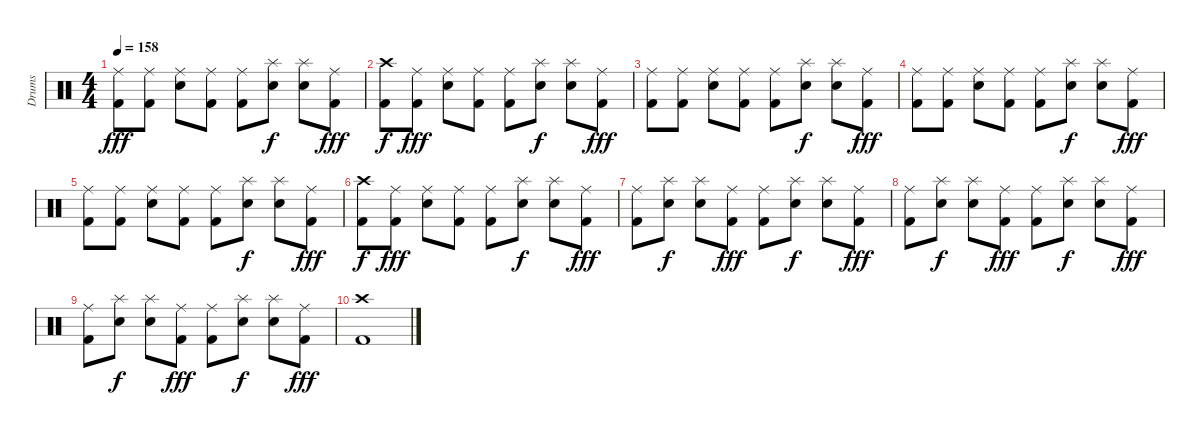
\track ("Drums" "Drums") {instrument percussion}
\staff {score}
\articulation defaults
\ts (4 4)
\tempo 158
\clef neutral
\ks c
("Ride (middle)" "Kick (hit) 2").8{dy fff} ("Ride (middle)" "Kick (hit) 2").8 ("Ride (middle)" "Electric Snare (hit)").8 ("Ride (middle)" "Kick (hit) 2").8 ("Ride (middle)" "Kick (hit) 2").8 ("Splash (hit)" "Electric Snare (hit)").8{dy f} ("Splash (hit)" "Electric Snare (hit)").8 ("Ride (middle)" "Kick (hit) 2").8{dy fff} |
("Crash high (hit)" "Kick (hit) 2").8{dy f} ("Ride (middle)" "Kick (hit) 2").8{dy fff} ("Ride (middle)" "Electric Snare (hit)").8 ("Ride (middle)" "Kick (hit) 2").8 ("Ride (middle)" "Kick (hit) 2").8 ("Splash (hit)" "Electric Snare (hit)").8{dy f} ("Splash (hit)" "Electric Snare (hit)").8 ("Ride (middle)" "Kick (hit) 2").8{dy fff} |
("Ride (middle)" "Kick (hit) 2").8 ("Ride (middle)" "Kick (hit) 2").8 ("Ride (middle)" "Electric Snare (hit)").8 ("Ride (middle)" "Kick (hit) 2").8 ("Ride (middle)" "Kick (hit) 2").8 ("Splash (hit)" "Electric Snare (hit)").8{dy f} ("Splash (hit)" "Electric Snare (hit)").8 ("Ride (middle)" "Kick (hit) 2").8{dy fff} |
("Ride (middle)" "Kick (hit) 2").8 ("Ride (middle)" "Kick (hit) 2").8 ("Ride (middle)" "Electric Snare (hit)").8 ("Ride (middle)" "Kick (hit) 2").8 ("Ride (middle)" "Kick (hit) 2").8 ("Splash (hit)" "Electric Snare (hit)").8{dy f} ("Splash (hit)" "Electric Snare (hit)").8 ("Ride (middle)" "Kick (hit) 2").8{dy fff} |
("Ride (middle)" "Kick (hit) 2").8 ("Ride (middle)" "Kick (hit) 2").8 ("Ride (middle)" "Electric Snare (hit)").8 ("Ride (middle)" "Kick (hit) 2").8 ("Ride (middle)" "Kick (hit) 2").8 ("Splash (hit)" "Electric Snare (hit)").8{dy f} ("Splash (hit)" "Electric Snare (hit)").8 ("Ride (middle)" "Kick (hit) 2").8{dy fff} |
("Crash high (hit)" "Kick (hit) 2").8{dy f} ("Ride (middle)" "Kick (hit) 2").8{dy fff} ("Ride (middle)" "Electric Snare (hit)").8 ("Ride (middle)" "Kick (hit) 2").8 ("Ride (middle)" "Kick (hit) 2").8 ("Splash (hit)" "Electric Snare (hit)").8{dy f} ("Splash (hit)" "Electric Snare (hit)").8 ("Ride (middle)" "Kick (hit) 2").8{dy fff} |
("Ride (middle)" "Kick (hit) 2").8 ("Splash (hit)" "Electric Snare (hit)").8{dy f} ("Splash (hit)" "Electric Snare (hit)").8 ("Ride (middle)" "Kick (hit) 2").8{dy fff} ("Ride (middle)" "Kick (hit) 2").8 ("Splash (hit)" "Electric Snare (hit)").8{dy f} ("Splash (hit)" "Electric Snare (hit)").8 ("Ride (middle)" "Kick (hit) 2").8{dy fff} |
("Ride (middle)" "Kick (hit) 2").8 ("Splash (hit)" "Electric Snare (hit)").8{dy f} ("Splash (hit)" "Electric Snare (hit)").8 ("Ride (middle)" "Kick (hit) 2").8{dy fff} ("Ride (middle)" "Kick (hit) 2").8 ("Splash (hit)" "Electric Snare (hit)").8{dy f} ("Splash (hit)" "Electric Snare (hit)").8 ("Ride (middle)" "Kick (hit) 2").8{dy fff} |
("Ride (middle)" "Kick (hit) 2").8 ("Splash (hit)" "Electric Snare (hit)").8{dy f} ("Splash (hit)" "Electric Snare (hit)").8 ("Ride (middle)" "Kick (hit) 2").8{dy fff} ("Ride (middle)" "Kick (hit) 2").8 ("Splash (hit)" "Electric Snare (hit)").8{dy f} ("Splash (hit)" "Electric Snare (hit)").8 ("Ride (middle)" "Kick (hit) 2").8{dy fff} |
("Crash high (hit)" "Kick (hit) 2").1
